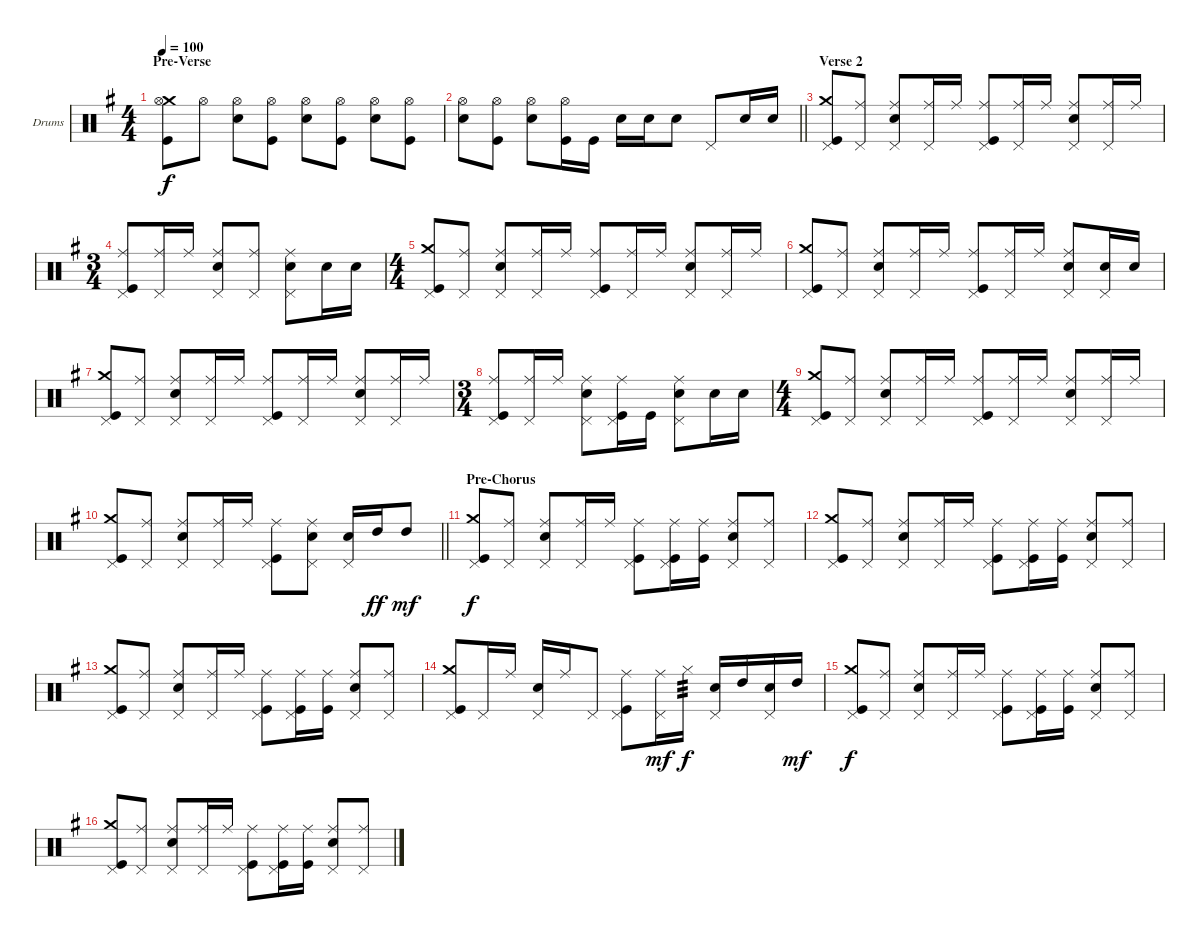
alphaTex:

\bracketExtendMode groupsimilarinstruments
\firstSystemTrackNameOrientation horizontal
\otherSystemsTrackNameOrientation horizontal
\track ("Барабаны" "Drums") {instrument percussion}
\staff {score}
\articulation defaults
\ts (4 4)
\section ("" "Pre-Verse")
\tempo 100
\clef neutral
\ks eminor
("Kick (hit)" "Crash medium (hit)" "Hi-Hat (open)").8{dy f} "Hi-Hat (open)".8 ("Hi-Hat (open)" "Snare (hit) 2").8 ("Hi-Hat (open)" "Kick (hit)").8 ("Hi-Hat (open)" "Snare (hit) 2").8 ("Hi-Hat (open)" "Kick (hit)").8 ("Hi-Hat (open)" "Snare (hit) 2").8 ("Hi-Hat (open)" "Kick (hit)").8 |
\barLineRight lightlight
("Hi-Hat (open)" "Snare (hit) 2").8 ("Hi-Hat (open)" "Kick (hit)").8 ("Hi-Hat (open)" "Snare (hit) 2").8 ("Hi-Hat (open)" "Kick (hit)").16 "Kick (hit)".16 "Snare (hit) 2".16 "Snare (hit) 2".16 "Snare (hit) 2".8 "Pedal Hi-Hat (hit)".8 "Snare (hit) 2".16 "Snare (hit) 2".16 |
\section ("" "Verse 2")
("Crash medium (hit)" "Kick (hit)" "Pedal Hi-Hat (hit)").8 ("Pedal Hi-Hat (hit)" "Ride (middle)").8 ("Ride (middle)" "Snare (hit) 2" "Pedal Hi-Hat (hit)").8 ("Ride (middle)" "Pedal Hi-Hat (hit)").16 "Ride (middle)".16 ("Ride (middle)" "Kick (hit)" "Pedal Hi-Hat (hit)").8 ("Ride (middle)" "Pedal Hi-Hat (hit)").16 "Ride (middle)".16 ("Ride (middle)" "Snare (hit) 2" "Pedal Hi-Hat (hit)").8 ("Ride (middle)" "Pedal Hi-Hat (hit)").16 "Ride (middle)".16 |
\ts (3 4)
\beaming (8 2 2 2)
("Ride (middle)" "Kick (hit)" "Pedal Hi-Hat (hit)").8 ("Ride (middle)" "Pedal Hi-Hat (hit)").16 "Ride (middle)".16 ("Ride (middle)" "Snare (hit) 2" "Pedal Hi-Hat (hit)").8 ("Ride (middle)" "Pedal Hi-Hat (hit)").8 ("Snare (hit) 2" "Pedal Hi-Hat (hit)" "Ride (middle)").8 "Snare (hit) 2".16 "Snare (hit) 2".16 |
\ts (4 4)
\beaming (8 2 2 2 2)
("Crash medium (hit)" "Kick (hit)" "Pedal Hi-Hat (hit)").8 ("Pedal Hi-Hat (hit)" "Ride (middle)").8 ("Ride (middle)" "Snare (hit) 2" "Pedal Hi-Hat (hit)").8 ("Ride (middle)" "Pedal Hi-Hat (hit)").16 "Ride (middle)".16 ("Ride (middle)" "Kick (hit)" "Pedal Hi-Hat (hit)").8 ("Ride (middle)" "Pedal Hi-Hat (hit)").16 "Ride (middle)".16 ("Ride (middle)" "Snare (hit) 2" "Pedal Hi-Hat (hit)").8 ("Ride (middle)" "Pedal Hi-Hat (hit)").16 "Ride (middle)".16 |
("Crash medium (hit)" "Kick (hit)" "Pedal Hi-Hat (hit)").8 ("Pedal Hi-Hat (hit)" "Ride (middle)").8 ("Ride (middle)" "Snare (hit) 2" "Pedal Hi-Hat (hit)").8 ("Ride (middle)" "Pedal Hi-Hat (hit)").16 "Ride (middle)".16 ("Ride (middle)" "Kick (hit)" "Pedal Hi-Hat (hit)").8 ("Ride (middle)" "Pedal Hi-Hat (hit)").16 "Ride (middle)".16 ("Ride (middle)" "Snare (hit) 2" "Pedal Hi-Hat (hit)").8 ("Snare (hit) 2" "Pedal Hi-Hat (hit)").16 "Snare (hit) 2".16 |
("Crash medium (hit)" "Kick (hit)" "Pedal Hi-Hat (hit)").8 ("Pedal Hi-Hat (hit)" "Ride (middle)").8 ("Ride (middle)" "Snare (hit) 2" "Pedal Hi-Hat (hit)").8 ("Ride (middle)" "Pedal Hi-Hat (hit)").16 "Ride (middle)".16 ("Ride (middle)" "Kick (hit)" "Pedal Hi-Hat (hit)").8 ("Ride (middle)" "Pedal Hi-Hat (hit)").16 "Ride (middle)".16 ("Ride (middle)" "Snare (hit) 2" "Pedal Hi-Hat (hit)").8 ("Ride (middle)" "Pedal Hi-Hat (hit)").16 "Ride (middle)".16 |
\ts (3 4)
\beaming (8 2 2 2 2)
("Ride (middle)" "Kick (hit)" "Pedal Hi-Hat (hit)").8 ("Ride (middle)" "Pedal Hi-Hat (hit)").16 "Ride (middle)".16 ("Ride (middle)" "Snare (hit) 2" "Pedal Hi-Hat (hit)").8 ("Ride (middle)" "Pedal Hi-Hat (hit)" "Kick (hit)").16 "Kick (hit)".16 ("Snare (hit) 2" "Pedal Hi-Hat (hit)" "Ride (middle)").8 "Snare (hit) 2".16 "Snare (hit) 2".16 |
\ts (4 4)
\beaming (8 2 2 2 2)
("Crash medium (hit)" "Kick (hit)" "Pedal Hi-Hat (hit)").8 ("Pedal Hi-Hat (hit)" "Ride (middle)").8 ("Ride (middle)" "Snare (hit) 2" "Pedal Hi-Hat (hit)").8 ("Ride (middle)" "Pedal Hi-Hat (hit)").16 "Ride (middle)".16 ("Ride (middle)" "Kick (hit)" "Pedal Hi-Hat (hit)").8 ("Ride (middle)" "Pedal Hi-Hat (hit)").16 "Ride (middle)".16 ("Ride (middle)" "Snare (hit) 2" "Pedal Hi-Hat (hit)").8 ("Ride (middle)" "Pedal Hi-Hat (hit)").16 "Ride (middle)".16 |
\barLineRight lightlight
("Crash medium (hit)" "Kick (hit)" "Pedal Hi-Hat (hit)").8 ("Pedal Hi-Hat (hit)" "Ride (middle)").8 ("Ride (middle)" "Snare (hit) 2" "Pedal Hi-Hat (hit)").8 ("Ride (middle)" "Pedal Hi-Hat (hit)").16 "Ride (middle)".16 ("Ride (middle)" "Kick (hit)" "Pedal Hi-Hat (hit)").8 ("Ride (middle)" "Pedal Hi-Hat (hit)" "Snare (hit) 2").8 ("Snare (hit) 2" "Pedal Hi-Hat (hit)").16 "High Tom (hit)".16{dy ff} "High Tom (hit)".8{dy mf} |
\section ("" "Pre-Chorus")
("Crash medium (hit)" "Kick (hit)" "Pedal Hi-Hat (hit)").8{dy f} ("Pedal Hi-Hat (hit)" "Ride (middle)").8 ("Ride (middle)" "Snare (hit) 2" "Pedal Hi-Hat (hit)").8 ("Ride (middle)" "Pedal Hi-Hat (hit)").16 "Ride (middle)".16 ("Ride (middle)" "Kick (hit)" "Pedal Hi-Hat (hit)").8 ("Ride (middle)" "Pedal Hi-Hat (hit)" "Kick (hit)").16 ("Ride (middle)" "Kick (hit)").16 ("Ride (middle)" "Snare (hit) 2" "Pedal Hi-Hat (hit)").8 ("Ride (middle)" "Pedal Hi-Hat (hit)").8 |
("Crash medium (hit)" "Kick (hit)" "Pedal Hi-Hat (hit)").8 ("Pedal Hi-Hat (hit)" "Ride (middle)").8 ("Ride (middle)" "Snare (hit) 2" "Pedal Hi-Hat (hit)").8 ("Ride (middle)" "Pedal Hi-Hat (hit)").16 "Ride (middle)".16 ("Ride (middle)" "Kick (hit)" "Pedal Hi-Hat (hit)").8 ("Ride (middle)" "Pedal Hi-Hat (hit)" "Kick (hit)").16 ("Ride (middle)" "Kick (hit)").16 ("Ride (middle)" "Snare (hit) 2" "Pedal Hi-Hat (hit)").8 ("Ride (middle)" "Pedal Hi-Hat (hit)").8 |
("Crash medium (hit)" "Kick (hit)" "Pedal Hi-Hat (hit)").8 ("Pedal Hi-Hat (hit)" "Ride (middle)").8 ("Ride (middle)" "Snare (hit) 2" "Pedal Hi-Hat (hit)").8 ("Ride (middle)" "Pedal Hi-Hat (hit)").16 "Ride (middle)".16 ("Ride (middle)" "Kick (hit)" "Pedal Hi-Hat (hit)").8 ("Ride (middle)" "Pedal Hi-Hat (hit)" "Kick (hit)").16 ("Ride (middle)" "Kick (hit)").16 ("Ride (middle)" "Snare (hit) 2" "Pedal Hi-Hat (hit)").8 ("Ride (middle)" "Pedal Hi-Hat (hit)").8 |
("Crash medium (hit)" "Kick (hit)" "Pedal Hi-Hat (hit)").8 "Pedal Hi-Hat (hit)".16 "Ride (middle)".16 ("Snare (hit) 2" "Pedal Hi-Hat (hit)").16 "Ride (middle)".16 "Pedal Hi-Hat (hit)".8 ("Ride (middle)" "Kick (hit)" "Pedal Hi-Hat (hit)").8 ("Pedal Hi-Hat (hit)" "Ride (middle)").16{dy mf} "Hi-Hat (closed)".16{tp 3 dy f} ("Snare (hit) 2" "Pedal Hi-Hat (hit)").16 "High Tom (hit)".16 ("Snare (hit) 2" "Pedal Hi-Hat (hit)").16 "High Tom (hit)".16{dy mf} |
("Crash medium (hit)" "Kick (hit)" "Pedal Hi-Hat (hit)").8{dy f} ("Pedal Hi-Hat (hit)" "Ride (middle)").8 ("Ride (middle)" "Snare (hit) 2" "Pedal Hi-Hat (hit)").8 ("Ride (middle)" "Pedal Hi-Hat (hit)").16 "Ride (middle)".16 ("Ride (middle)" "Kick (hit)" "Pedal Hi-Hat (hit)").8 ("Ride (middle)" "Pedal Hi-Hat (hit)" "Kick (hit)").16 ("Ride (middle)" "Kick (hit)").16 ("Ride (middle)" "Snare (hit) 2" "Pedal Hi-Hat (hit)").8 ("Ride (middle)" "Pedal Hi-Hat (hit)").8 |
("Crash medium (hit)" "Kick (hit)" "Pedal Hi-Hat (hit)").8 ("Pedal Hi-Hat (hit)" "Ride (middle)").8 ("Ride (middle)" "Snare (hit) 2" "Pedal Hi-Hat (hit)").8 ("Ride (middle)" "Pedal Hi-Hat (hit)").16 "Ride (middle)".16 ("Ride (middle)" "Kick (hit)" "Pedal Hi-Hat (hit)").8 ("Ride (middle)" "Pedal Hi-Hat (hit)" "Kick (hit)").16 ("Ride (middle)" "Kick (hit)").16 ("Ride (middle)" "Snare (hit) 2" "Pedal Hi-Hat (hit)").8 ("Ride (middle)" "Pedal Hi-Hat (hit)").8
